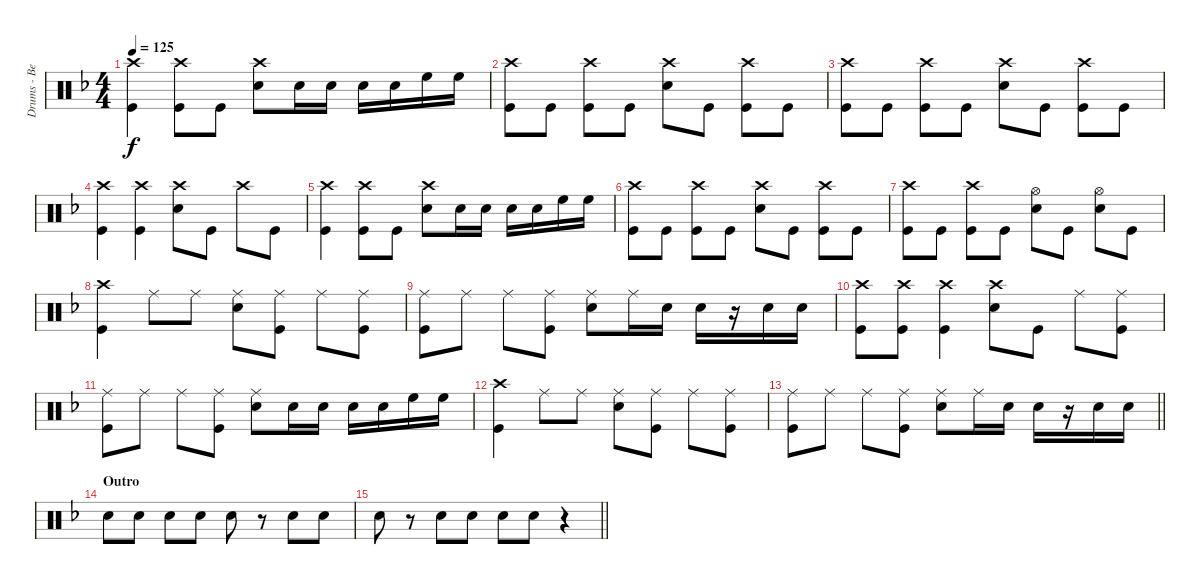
\track ("Drums - Ben Johnston" "Drums - Be") {instrument percussion}
\staff {score}
\articulation defaults
\ts (4 4)
\tempo 125
\clef neutral
\ks dminor
("Crash high (hit)" "Kick (hit)").4{dy f} ("Crash high (hit)" "Kick (hit)").8 "Kick (hit)".8 ("Crash high (hit)" "Snare (hit) 2").8 "Snare (hit) 2".16 "Snare (hit) 2".16 "Snare (hit) 2".16 "Snare (hit) 2".16 "High Floor Tom (hit)".16 "High Floor Tom (hit)".16 |
("Crash high (hit)" "Kick (hit)").8 "Kick (hit)".8 ("Crash high (hit)" "Kick (hit)").8 "Kick (hit)".8 ("Crash high (hit)" "Snare (hit) 2").8 "Kick (hit)".8 ("Crash high (hit)" "Kick (hit)").8 "Kick (hit)".8 |
("Crash high (hit)" "Kick (hit)").8 "Kick (hit)".8 ("Crash high (hit)" "Kick (hit)").8 "Kick (hit)".8 ("Crash high (hit)" "Snare (hit) 2").8 "Kick (hit)".8 ("Crash high (hit)" "Kick (hit)").8 "Kick (hit)".8 |
("Crash high (hit)" "Kick (hit)").4 ("Crash high (hit)" "Kick (hit)").4 ("Crash high (hit)" "Snare (hit) 2").8 "Kick (hit)".8 "Crash high (hit)".8 "Kick (hit)".8 |
("Crash high (hit)" "Kick (hit)").4 ("Crash high (hit)" "Kick (hit)").8 "Kick (hit)".8 ("Crash high (hit)" "Snare (hit) 2").8 "Snare (hit) 2".16 "Snare (hit) 2".16 "Snare (hit) 2".16 "Snare (hit) 2".16 "High Floor Tom (hit)".16 "High Floor Tom (hit)".16 |
("Crash high (hit)" "Kick (hit)").8 "Kick (hit)".8 ("Crash high (hit)" "Kick (hit)").8 "Kick (hit)".8 ("Crash high (hit)" "Snare (hit) 2").8 "Kick (hit)".8 ("Crash high (hit)" "Kick (hit)").8 "Kick (hit)".8 |
("Crash high (hit)" "Kick (hit)").8 "Kick (hit)".8 ("Crash high (hit)" "Kick (hit)").8 "Kick (hit)".8 ("Hi-Hat (open)" "Snare (hit) 2").8 "Kick (hit)".8 ("Hi-Hat (open)" "Snare (hit) 2").8 "Kick (hit)".8 |
("Crash high (hit)" "Kick (hit)").4 "Ride (middle)".8 "Ride (middle)".8 ("Ride (middle)" "Snare (hit) 2").8 ("Ride (middle)" "Kick (hit)").8 "Ride (middle)".8 ("Ride (middle)" "Kick (hit)").8 |
("Ride (middle)" "Kick (hit)").8 "Ride (middle)".8 "Ride (middle)".8 ("Ride (middle)" "Kick (hit)").8 ("Ride (middle)" "Snare (hit) 2").8 "Ride (middle)".16 "Snare (hit) 2".16 "Snare (hit) 2".16 r.16 "Snare (hit) 2".16 "Snare (hit) 2".16 |
("Crash high (hit)" "Kick (hit)").8 ("Crash high (hit)" "Kick (hit)").8 ("Crash high (hit)" "Kick (hit)").4 ("Crash high (hit)" "Snare (hit) 2").8 "Kick (hit)".8 "Ride (middle)".8 ("Ride (middle)" "Kick (hit)").8 |
("Ride (middle)" "Kick (hit)").8 "Ride (middle)".8 "Ride (middle)".8 ("Ride (middle)" "Kick (hit)").8 ("Ride (middle)" "Snare (hit) 2").8 "Snare (hit) 2".16 "Snare (hit) 2".16 "Snare (hit) 2".16 "Snare (hit) 2".16 "High Floor Tom (hit)".16 "High Floor Tom (hit)".16 |
("Crash high (hit)" "Kick (hit)").4 "Ride (middle)".8 "Ride (middle)".8 ("Ride (middle)" "Snare (hit) 2").8 ("Ride (middle)" "Kick (hit)").8 "Ride (middle)".8 ("Ride (middle)" "Kick (hit)").8 |
\barLineRight lightlight
("Ride (middle)" "Kick (hit)").8 "Ride (middle)".8 "Ride (middle)".8 ("Ride (middle)" "Kick (hit)").8 ("Ride (middle)" "Snare (hit) 2").8 "Ride (middle)".16 "Snare (hit) 2".16 "Snare (hit) 2".16 r.16 "Snare (hit) 2".16 "Snare (hit) 2".16 |
\section ("" "Outro")
"Snare (hit) 2".8 "Snare (hit) 2".8 "Snare (hit) 2".8 "Snare (hit) 2".8 "Snare (hit) 2".8 r.8 "Snare (hit) 2".8 "Snare (hit) 2".8 |
\barLineRight lightlight "Snare (hit) 2".8
r.8 "Snare (hit) 2".8 "Snare (hit) 2".8 "Snare (hit) 2".8 "Snare (hit) 2".8 r.4
